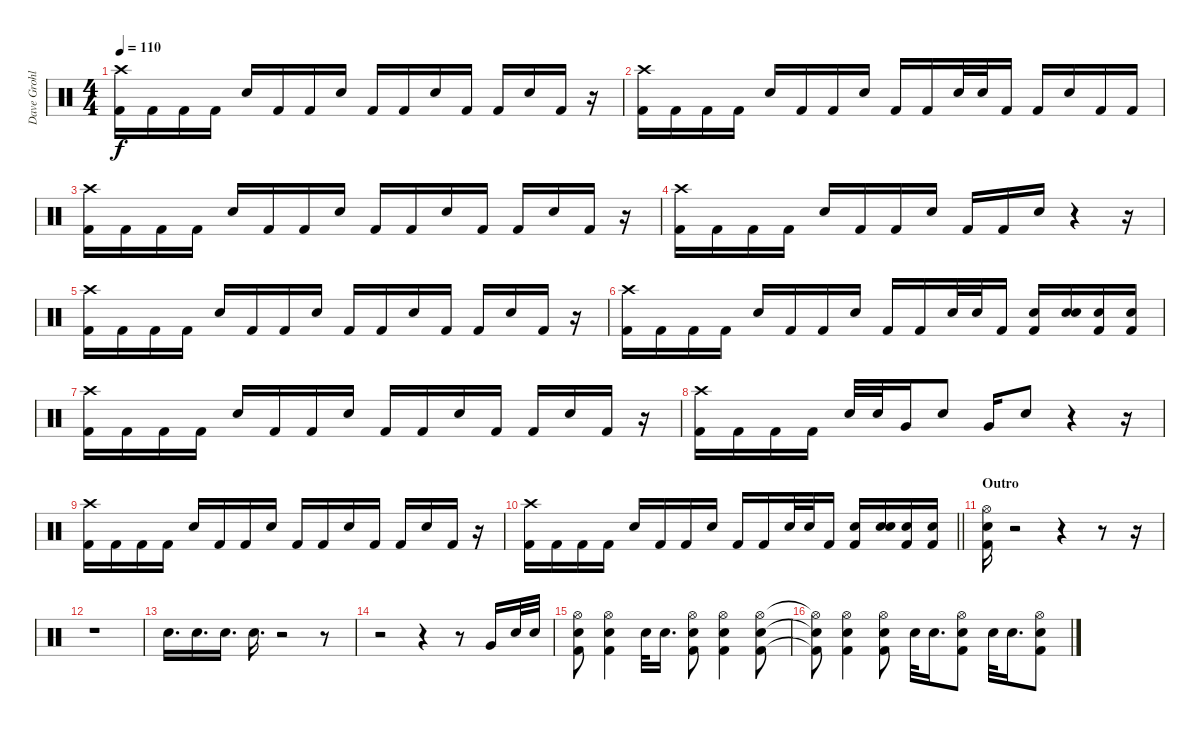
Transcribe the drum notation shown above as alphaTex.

\track ("Dave Grohl" "Dave Grohl") {instrument percussion}
\staff {score}
\articulation defaults
\ts (4 4)
\tempo 110
\clef neutral
\ks c
("Crash high (hit)" "Kick (hit) 2").16{dy f} "Kick (hit) 2".16 "Kick (hit) 2".16 "Kick (hit) 2".16 "Snare (hit) 2".16 "Kick (hit) 2".16 "Kick (hit) 2".16 "Snare (hit) 2".16 "Kick (hit) 2".16 "Kick (hit) 2".16 "Snare (hit) 2".16 "Kick (hit) 2".16 "Kick (hit) 2".16 "Snare (hit) 2".16 "Kick (hit) 2".16 r.16 |
("Crash high (hit)" "Kick (hit) 2").16 "Kick (hit) 2".16 "Kick (hit) 2".16 "Kick (hit) 2".16 "Snare (hit) 2".16 "Kick (hit) 2".16 "Kick (hit) 2".16 "Snare (hit) 2".16 "Kick (hit) 2".16 "Kick (hit) 2".16 "Snare (hit) 2".32 "Snare (hit) 2".32 "Kick (hit) 2".16 "Kick (hit) 2".16 "Snare (hit) 2".16 "Kick (hit) 2".16 "Kick (hit) 2".16 |
("Crash high (hit)" "Kick (hit) 2").16 "Kick (hit) 2".16 "Kick (hit) 2".16 "Kick (hit) 2".16 "Snare (hit) 2".16 "Kick (hit) 2".16 "Kick (hit) 2".16 "Snare (hit) 2".16 "Kick (hit) 2".16 "Kick (hit) 2".16 "Snare (hit) 2".16 "Kick (hit) 2".16 "Kick (hit) 2".16 "Snare (hit) 2".16 "Kick (hit) 2".16 r.16 |
("Crash high (hit)" "Kick (hit) 2").16 "Kick (hit) 2".16 "Kick (hit) 2".16 "Kick (hit) 2".16 "Snare (hit) 2".16 "Kick (hit) 2".16 "Kick (hit) 2".16 "Snare (hit) 2".16 "Kick (hit) 2".16 "Kick (hit) 2".16 "Snare (hit) 2".16 r.4 r.16 |
("Crash high (hit)" "Kick (hit) 2").16 "Kick (hit) 2".16 "Kick (hit) 2".16 "Kick (hit) 2".16 "Snare (hit) 2".16 "Kick (hit) 2".16 "Kick (hit) 2".16 "Snare (hit) 2".16 "Kick (hit) 2".16 "Kick (hit) 2".16 "Snare (hit) 2".16 "Kick (hit) 2".16 "Kick (hit) 2".16 "Snare (hit) 2".16 "Kick (hit) 2".16 r.16 |
("Crash high (hit)" "Kick (hit) 2").16 "Kick (hit) 2".16 "Kick (hit) 2".16 "Kick (hit) 2".16 "Snare (hit) 2".16 "Kick (hit) 2".16 "Kick (hit) 2".16 "Snare (hit) 2".16 "Kick (hit) 2".16 "Kick (hit) 2".16 "Snare (hit) 2".32 "Snare (hit) 2".32 "Kick (hit) 2".16 ("Snare (hit) 2" "Kick (hit) 2").16 ("Snare (hit) 2" "Snare (hit) 2").16 ("Snare (hit) 2" "Kick (hit) 2").16 ("Snare (hit) 2" "Kick (hit) 2").16 |
("Crash high (hit)" "Kick (hit) 2").16 "Kick (hit) 2".16 "Kick (hit) 2".16 "Kick (hit) 2".16 "Snare (hit) 2".16 "Kick (hit) 2".16 "Kick (hit) 2".16 "Snare (hit) 2".16 "Kick (hit) 2".16 "Kick (hit) 2".16 "Snare (hit) 2".16 "Kick (hit) 2".16 "Kick (hit) 2".16 "Snare (hit) 2".16 "Kick (hit) 2".16 r.16 |
("Crash high (hit)" "Kick (hit) 2").16 "Kick (hit) 2".16 "Kick (hit) 2".16 "Kick (hit) 2".16 "Snare (hit) 2".32 "Snare (hit) 2".32 "Very Low Tom (hit)".16 "Snare (hit) 2".8 "Very Low Tom (hit)".16 "Snare (hit) 2".8 r.4 r.16 |
("Crash high (hit)" "Kick (hit) 2").16 "Kick (hit) 2".16 "Kick (hit) 2".16 "Kick (hit) 2".16 "Snare (hit) 2".16 "Kick (hit) 2".16 "Kick (hit) 2".16 "Snare (hit) 2".16 "Kick (hit) 2".16 "Kick (hit) 2".16 "Snare (hit) 2".16 "Kick (hit) 2".16 "Kick (hit) 2".16 "Snare (hit) 2".16 "Kick (hit) 2".16 r.16 |
\barLineRight lightlight
("Crash high (hit)" "Kick (hit) 2").16 "Kick (hit) 2".16 "Kick (hit) 2".16 "Kick (hit) 2".16 "Snare (hit) 2".16 "Kick (hit) 2".16 "Kick (hit) 2".16 "Snare (hit) 2".16 "Kick (hit) 2".16 "Kick (hit) 2".16 "Snare (hit) 2".32 "Snare (hit) 2".32 "Kick (hit) 2".16 ("Snare (hit) 2" "Kick (hit) 2").16 ("Snare (hit) 2" "Snare (hit) 2").16 ("Snare (hit) 2" "Kick (hit) 2").16 ("Snare (hit) 2" "Kick (hit) 2").16 |
\section ("" "Outro")
("Hi-Hat (open)" "Snare (hit) 2" "Kick (hit) 2").16 r.2 r.4 r.8 r.16 |
r.1 |
"Snare (hit) 2".16{d} "Electric Snare (hit)".16{d} "Electric Snare (hit)".16{d} "Electric Snare (hit)".16{d} r.2 r.8 |
r.2 r.4 r.8 "Very Low Tom (hit)".16 "Snare (hit) 2".32 "Snare (hit) 2".32 |
("Snare (hit) 2" "Hi-Hat (open)" "Kick (hit) 2").8 ("Snare (hit) 2" "Hi-Hat (open)" "Kick (hit) 2").4 "Snare (hit) 2".32 "Snare (hit) 2".16{d} ("Snare (hit) 2" "Hi-Hat (open)" "Kick (hit) 2").8 ("Snare (hit) 2" "Hi-Hat (open)" "Kick (hit) 2").4 ("Snare (hit) 2" "Hi-Hat (open)" "Kick (hit) 2").8 |
("Snare (hit) 2"{t} "Hi-Hat (open)"{t} "Kick (hit) 2"{t}).8 ("Snare (hit) 2" "Hi-Hat (open)" "Kick (hit) 2").4 ("Snare (hit) 2" "Hi-Hat (open)" "Kick (hit) 2").8 "Snare (hit) 2".32 "Snare (hit) 2".16{d} ("Snare (hit) 2" "Hi-Hat (open)" "Kick (hit) 2").8 "Snare (hit) 2".32 "Snare (hit) 2".16{d} ("Snare (hit) 2" "Hi-Hat (open)" "Kick (hit) 2").8
